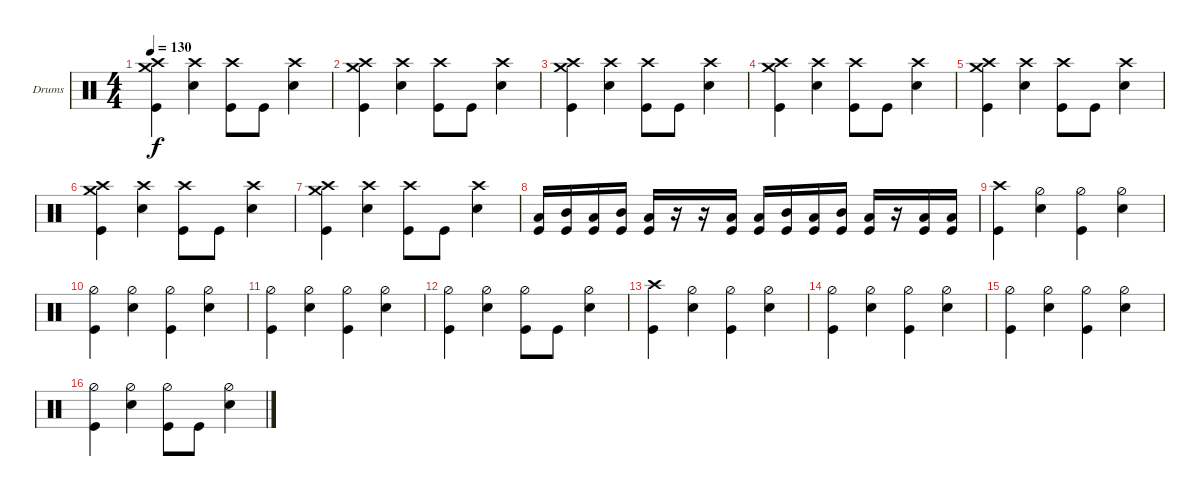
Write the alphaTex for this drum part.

\bracketExtendMode groupsimilarinstruments
\firstSystemTrackNameOrientation horizontal
\otherSystemsTrackNameOrientation horizontal
\track ("Drumkit" "Drums") {instrument percussion}
\staff {score}
\articulation defaults
\ts (4 4)
\tempo 130
\clef neutral
\ks c
("Kick (hit)" "Crash high (hit)" "Crash medium (hit)").4{dy f} ("Snare (hit) 2" "Crash high (hit)").4 ("Kick (hit)" "Crash high (hit)").8 "Kick (hit)".8 ("Snare (hit) 2" "Crash high (hit)").4 |
("Kick (hit)" "Crash high (hit)" "Crash medium (hit)").4 ("Snare (hit) 2" "Crash high (hit)").4 ("Kick (hit)" "Crash high (hit)").8 "Kick (hit)".8 ("Snare (hit) 2" "Crash high (hit)").4 |
("Kick (hit)" "Crash high (hit)" "Crash medium (hit)").4 ("Snare (hit) 2" "Crash high (hit)").4 ("Kick (hit)" "Crash high (hit)").8 "Kick (hit)".8 ("Snare (hit) 2" "Crash high (hit)").4 |
("Kick (hit)" "Crash high (hit)" "Crash medium (hit)").4 ("Snare (hit) 2" "Crash high (hit)").4 ("Kick (hit)" "Crash high (hit)").8 "Kick (hit)".8 ("Snare (hit) 2" "Crash high (hit)").4 |
("Kick (hit)" "Crash high (hit)" "Crash medium (hit)").4 ("Snare (hit) 2" "Crash high (hit)").4 ("Kick (hit)" "Crash high (hit)").8 "Kick (hit)".8 ("Snare (hit) 2" "Crash high (hit)").4 |
("Kick (hit)" "Crash high (hit)" "Crash medium (hit)").4 ("Snare (hit) 2" "Crash high (hit)").4 ("Kick (hit)" "Crash high (hit)").8 "Kick (hit)".8 ("Snare (hit) 2" "Crash high (hit)").4 |
("Kick (hit)" "Crash high (hit)" "Crash medium (hit)").4 ("Snare (hit) 2" "Crash high (hit)").4 ("Kick (hit)" "Crash high (hit)").8 "Kick (hit)".8 ("Snare (hit) 2" "Crash high (hit)").4 |
("Low Tom (hit)" "Kick (hit)").16 ("Mid Tom (hit)" "Kick (hit)").16 ("Low Tom (hit)" "Kick (hit)").16 ("Mid Tom (hit)" "Kick (hit)").16 ("Low Tom (hit)" "Kick (hit)").16 r.16 r.16 ("Low Tom (hit)" "Kick (hit)").16 ("Low Tom (hit)" "Kick (hit)").16 ("Mid Tom (hit)" "Kick (hit)").16 ("Low Tom (hit)" "Kick (hit)").16 ("Mid Tom (hit)" "Kick (hit)").16 ("Low Tom (hit)" "Kick (hit)").16 r.16 ("Low Tom (hit)" "Kick (hit)").16 ("Low Tom (hit)" "Kick (hit)").16 |
("Kick (hit)" "Crash high (hit)").4 ("Snare (hit) 2" "Hi-Hat (half)").4 ("Kick (hit)" "Hi-Hat (half)").4 ("Snare (hit) 2" "Hi-Hat (half)").4 |
("Kick (hit)" "Hi-Hat (half)").4 ("Snare (hit) 2" "Hi-Hat (half)").4 ("Kick (hit)" "Hi-Hat (half)").4 ("Snare (hit) 2" "Hi-Hat (half)").4 |
("Kick (hit)" "Hi-Hat (half)").4 ("Snare (hit) 2" "Hi-Hat (half)").4 ("Kick (hit)" "Hi-Hat (half)").4 ("Snare (hit) 2" "Hi-Hat (half)").4 |
("Kick (hit)" "Hi-Hat (half)").4 ("Snare (hit) 2" "Hi-Hat (half)").4 ("Kick (hit)" "Hi-Hat (half)").8 "Kick (hit)".8 ("Hi-Hat (half)" "Snare (hit) 2").4 |
("Kick (hit)" "Crash high (hit)").4 ("Snare (hit) 2" "Hi-Hat (half)").4 ("Kick (hit)" "Hi-Hat (half)").4 ("Snare (hit) 2" "Hi-Hat (half)").4 |
("Kick (hit)" "Hi-Hat (half)").4 ("Snare (hit) 2" "Hi-Hat (half)").4 ("Kick (hit)" "Hi-Hat (half)").4 ("Snare (hit) 2" "Hi-Hat (half)").4 |
("Kick (hit)" "Hi-Hat (half)").4 ("Snare (hit) 2" "Hi-Hat (half)").4 ("Kick (hit)" "Hi-Hat (half)").4 ("Snare (hit) 2" "Hi-Hat (half)").4 |
("Kick (hit)" "Hi-Hat (half)").4 ("Snare (hit) 2" "Hi-Hat (half)").4 ("Kick (hit)" "Hi-Hat (half)").8 "Kick (hit)".8 ("Hi-Hat (half)" "Snare (hit) 2").4
